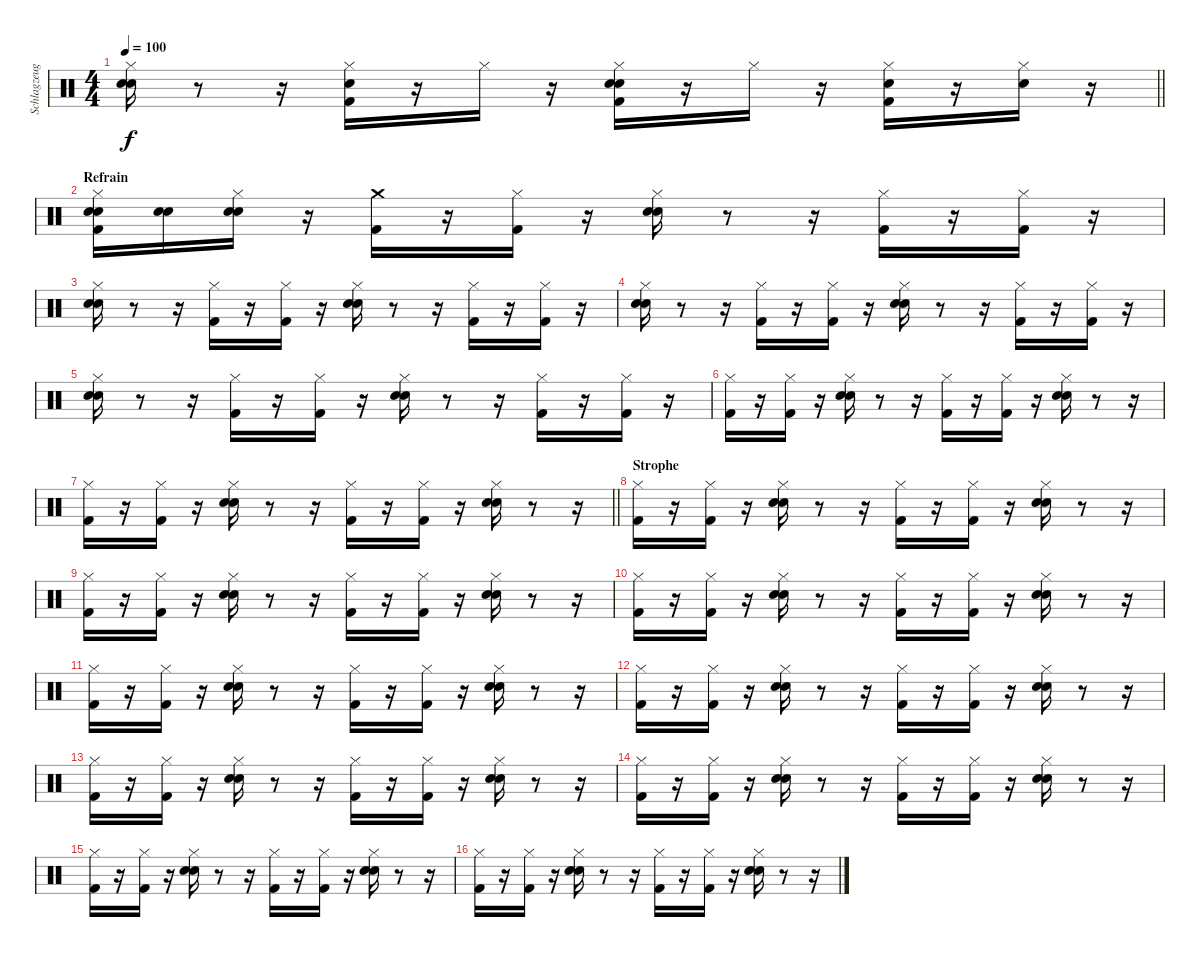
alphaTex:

\track ("Schlagzeug" "Schlagzeug") {instrument percussion}
\staff {score}
\articulation defaults
\ts (4 4)
\tempo 100
\clef neutral
\barLineRight lightlight
\ks c
("Snare (hit) 2" "Hi-Hat (closed)" "Hand Clap (hit)").16{dy f} r.8 r.16 ("Hi-Hat (closed)" "Snare (hit) 2" "Kick (hit) 2").16 r.16 "Hi-Hat (closed)".16 r.16 ("Hi-Hat (closed)" "Hand Clap (hit)" "Kick (hit) 2" "Snare (hit) 2").16 r.16 "Hi-Hat (closed)".16 r.16 ("Hi-Hat (closed)" "Snare (hit) 2" "Kick (hit) 2").16 r.16 ("Snare (hit) 2" "Hi-Hat (closed)").16 r.16 |
\section ("" "Refrain")
("Hand Clap (hit)" "Kick (hit) 2" "Hi-Hat (closed)" "Snare (hit) 2").16 ("Snare (hit)" "Snare (hit) 2").16 ("Snare (hit)" "Snare (hit) 2" "Hi-Hat (closed)").16 r.16 ("Crash medium (hit)" "Kick (hit) 2").16 r.16 ("Hi-Hat (closed)" "Kick (hit) 2").16 r.16 ("Hand Clap (hit)" "Hi-Hat (closed)" "Snare (hit) 2").16 r.8 r.16 ("Kick (hit) 2" "Hi-Hat (closed)").16 r.16 ("Kick (hit) 2" "Hi-Hat (closed)").16 r.16 |
("Hi-Hat (closed)" "Hand Clap (hit)" "Snare (hit) 2").16 r.8 r.16 ("Hi-Hat (closed)" "Kick (hit) 2").16 r.16 ("Kick (hit) 2" "Hi-Hat (closed)").16 r.16 ("Snare (hit) 2" "Hi-Hat (closed)" "Hand Clap (hit)").16 r.8 r.16 ("Hi-Hat (closed)" "Kick (hit) 2").16 r.16 ("Hi-Hat (closed)" "Kick (hit) 2").16 r.16 |
("Snare (hit) 2" "Hand Clap (hit)" "Hi-Hat (closed)").16 r.8 r.16 ("Hi-Hat (closed)" "Kick (hit) 2").16 r.16 ("Kick (hit) 2" "Hi-Hat (closed)").16 r.16 ("Snare (hit) 2" "Hi-Hat (closed)" "Hand Clap (hit)").16 r.8 r.16 ("Kick (hit) 2" "Hi-Hat (closed)").16 r.16 ("Hi-Hat (closed)" "Kick (hit) 2").16 r.16 |
("Hi-Hat (closed)" "Snare (hit) 2" "Hand Clap (hit)").16 r.8 r.16 ("Hi-Hat (closed)" "Kick (hit) 2").16 r.16 ("Kick (hit) 2" "Hi-Hat (closed)").16 r.16 ("Hi-Hat (closed)" "Hand Clap (hit)" "Snare (hit) 2").16 r.8 r.16 ("Hi-Hat (closed)" "Kick (hit) 2").16 r.16 ("Kick (hit) 2" "Hi-Hat (closed)").16 r.16 |
("Hi-Hat (closed)" "Kick (hit) 2").16 r.16 ("Hi-Hat (closed)" "Kick (hit) 2").16 r.16 ("Snare (hit) 2" "Hand Clap (hit)" "Hi-Hat (closed)").16 r.8 r.16 ("Kick (hit) 2" "Hi-Hat (closed)").16 r.16 ("Hi-Hat (closed)" "Kick (hit) 2").16 r.16 ("Hi-Hat (closed)" "Snare (hit) 2" "Hand Clap (hit)").16 r.8 r.16 |
\barLineRight lightlight
("Kick (hit) 2" "Hi-Hat (closed)").16 r.16 ("Kick (hit) 2" "Hi-Hat (closed)").16 r.16 ("Hi-Hat (closed)" "Snare (hit) 2" "Hand Clap (hit)").16 r.8 r.16 ("Kick (hit) 2" "Hi-Hat (closed)").16 r.16 ("Kick (hit) 2" "Hi-Hat (closed)").16 r.16 ("Hand Clap (hit)" "Snare (hit) 2" "Hi-Hat (closed)").16 r.8 r.16 |
\section ("" "Strophe")
("Kick (hit) 2" "Hi-Hat (closed)").16 r.16 ("Hi-Hat (closed)" "Kick (hit) 2").16 r.16 ("Hi-Hat (closed)" "Hand Clap (hit)" "Snare (hit) 2").16 r.8 r.16 ("Hi-Hat (closed)" "Kick (hit) 2").16 r.16 ("Hi-Hat (closed)" "Kick (hit) 2").16 r.16 ("Snare (hit) 2" "Hand Clap (hit)" "Hi-Hat (closed)").16 r.8 r.16 |
("Kick (hit) 2" "Hi-Hat (closed)").16 r.16 ("Kick (hit) 2" "Hi-Hat (closed)").16 r.16 ("Snare (hit) 2" "Hand Clap (hit)" "Hi-Hat (closed)").16 r.8 r.16 ("Hi-Hat (closed)" "Kick (hit) 2").16 r.16 ("Kick (hit) 2" "Hi-Hat (closed)").16 r.16 ("Hi-Hat (closed)" "Snare (hit) 2" "Hand Clap (hit)").16 r.8 r.16 |
("Hi-Hat (closed)" "Kick (hit) 2").16 r.16 ("Hi-Hat (closed)" "Kick (hit) 2").16 r.16 ("Hand Clap (hit)" "Hi-Hat (closed)" "Snare (hit) 2").16 r.8 r.16 ("Hi-Hat (closed)" "Kick (hit) 2").16 r.16 ("Hi-Hat (closed)" "Kick (hit) 2").16 r.16 ("Hand Clap (hit)" "Snare (hit) 2" "Hi-Hat (closed)").16 r.8 r.16 |
("Hi-Hat (closed)" "Kick (hit) 2").16 r.16 ("Hi-Hat (closed)" "Kick (hit) 2").16 r.16 ("Hand Clap (hit)" "Snare (hit) 2" "Hi-Hat (closed)").16 r.8 r.16 ("Hi-Hat (closed)" "Kick (hit) 2").16 r.16 ("Hi-Hat (closed)" "Kick (hit) 2").16 r.16 ("Hand Clap (hit)" "Snare (hit) 2" "Hi-Hat (closed)").16 r.8 r.16 |
("Kick (hit) 2" "Hi-Hat (closed)").16 r.16 ("Hi-Hat (closed)" "Kick (hit) 2").16 r.16 ("Hand Clap (hit)" "Hi-Hat (closed)" "Snare (hit) 2").16 r.8 r.16 ("Hi-Hat (closed)" "Kick (hit) 2").16 r.16 ("Hi-Hat (closed)" "Kick (hit) 2").16 r.16 ("Hand Clap (hit)" "Hi-Hat (closed)" "Snare (hit) 2").16 r.8 r.16 |
("Hi-Hat (closed)" "Kick (hit) 2").16 r.16 ("Kick (hit) 2" "Hi-Hat (closed)").16 r.16 ("Hand Clap (hit)" "Snare (hit) 2" "Hi-Hat (closed)").16 r.8 r.16 ("Kick (hit) 2" "Hi-Hat (closed)").16 r.16 ("Kick (hit) 2" "Hi-Hat (closed)").16 r.16 ("Hi-Hat (closed)" "Hand Clap (hit)" "Snare (hit) 2").16 r.8 r.16 |
("Kick (hit) 2" "Hi-Hat (closed)").16 r.16 ("Kick (hit) 2" "Hi-Hat (closed)").16 r.16 ("Snare (hit) 2" "Hand Clap (hit)" "Hi-Hat (closed)").16 r.8 r.16 ("Kick (hit) 2" "Hi-Hat (closed)").16 r.16 ("Hi-Hat (closed)" "Kick (hit) 2").16 r.16 ("Hand Clap (hit)" "Snare (hit) 2" "Hi-Hat (closed)").16 r.8 r.16 |
("Hi-Hat (closed)" "Kick (hit) 2").16 r.16 ("Hi-Hat (closed)" "Kick (hit) 2").16 r.16 ("Snare (hit) 2" "Hand Clap (hit)" "Hi-Hat (closed)").16 r.8 r.16 ("Hi-Hat (closed)" "Kick (hit) 2").16 r.16 ("Hi-Hat (closed)" "Kick (hit) 2").16 r.16 ("Hand Clap (hit)" "Snare (hit) 2" "Hi-Hat (closed)").16 r.8 r.16 |
("Hi-Hat (closed)" "Kick (hit) 2").16 r.16 ("Kick (hit) 2" "Hi-Hat (closed)").16 r.16 ("Hand Clap (hit)" "Hi-Hat (closed)" "Snare (hit) 2").16 r.8 r.16 ("Hi-Hat (closed)" "Kick (hit) 2").16 r.16 ("Hi-Hat (closed)" "Kick (hit) 2").16 r.16 ("Snare (hit) 2" "Hand Clap (hit)" "Hi-Hat (closed)").16 r.8 r.16
